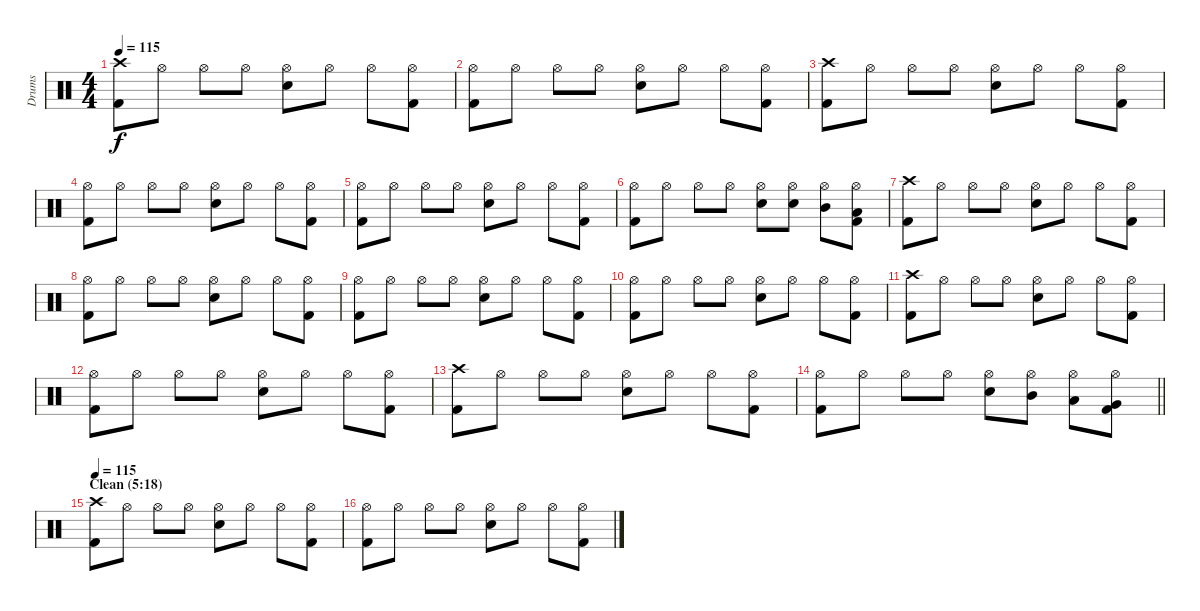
\track ("Drums" "Drums") {instrument percussion}
\staff
\articulation defaults
\ts (4 4)
\tempo 115
\clef neutral
\ks c
("Crash high (hit)" "Kick (hit) 2").8{dy f} "Hi-Hat (open)".8 "Hi-Hat (open)".8 "Hi-Hat (open)".8 ("Snare (hit) 2" "Hi-Hat (open)").8 "Hi-Hat (open)".8 "Hi-Hat (open)".8 ("Hi-Hat (open)" "Kick (hit) 2").8 |
("Hi-Hat (open)" "Kick (hit) 2").8 "Hi-Hat (open)".8 "Hi-Hat (open)".8 "Hi-Hat (open)".8 ("Snare (hit) 2" "Hi-Hat (open)").8 "Hi-Hat (open)".8 "Hi-Hat (open)".8 ("Hi-Hat (open)" "Kick (hit) 2").8 |
("Crash high (hit)" "Kick (hit) 2").8 "Hi-Hat (open)".8 "Hi-Hat (open)".8 "Hi-Hat (open)".8 ("Snare (hit) 2" "Hi-Hat (open)").8 "Hi-Hat (open)".8 "Hi-Hat (open)".8 ("Hi-Hat (open)" "Kick (hit) 2").8 |
("Hi-Hat (open)" "Kick (hit) 2").8 "Hi-Hat (open)".8 "Hi-Hat (open)".8 "Hi-Hat (open)".8 ("Snare (hit) 2" "Hi-Hat (open)").8 "Hi-Hat (open)".8 "Hi-Hat (open)".8 ("Hi-Hat (open)" "Kick (hit) 2").8 |
("Hi-Hat (open)" "Kick (hit) 2").8 "Hi-Hat (open)".8 "Hi-Hat (open)".8 "Hi-Hat (open)".8 ("Snare (hit) 2" "Hi-Hat (open)").8 "Hi-Hat (open)".8 "Hi-Hat (open)".8 ("Hi-Hat (open)" "Kick (hit) 2").8 |
("Hi-Hat (open)" "Kick (hit) 2").8 "Hi-Hat (open)".8 "Hi-Hat (open)".8 "Hi-Hat (open)".8 ("Snare (hit) 2" "Hi-Hat (open)").8 ("Snare (hit) 2" "Hi-Hat (open)").8 ("Mid Tom (hit)" "Hi-Hat (open)").8 ("Low Tom (hit)" "Hi-Hat (open)" "Kick (hit) 2").8 |
("Crash high (hit)" "Kick (hit) 2").8 "Hi-Hat (open)".8 "Hi-Hat (open)".8 "Hi-Hat (open)".8 ("Snare (hit) 2" "Hi-Hat (open)").8 "Hi-Hat (open)".8 "Hi-Hat (open)".8 ("Hi-Hat (open)" "Kick (hit) 2").8 |
("Hi-Hat (open)" "Kick (hit) 2").8 "Hi-Hat (open)".8 "Hi-Hat (open)".8 "Hi-Hat (open)".8 ("Snare (hit) 2" "Hi-Hat (open)").8 "Hi-Hat (open)".8 "Hi-Hat (open)".8 ("Hi-Hat (open)" "Kick (hit) 2").8 |
("Hi-Hat (open)" "Kick (hit) 2").8 "Hi-Hat (open)".8 "Hi-Hat (open)".8 "Hi-Hat (open)".8 ("Snare (hit) 2" "Hi-Hat (open)").8 "Hi-Hat (open)".8 "Hi-Hat (open)".8 ("Hi-Hat (open)" "Kick (hit) 2").8 |
("Hi-Hat (open)" "Kick (hit) 2").8 "Hi-Hat (open)".8 "Hi-Hat (open)".8 "Hi-Hat (open)".8 ("Snare (hit) 2" "Hi-Hat (open)").8 "Hi-Hat (open)".8 "Hi-Hat (open)".8 ("Hi-Hat (open)" "Kick (hit) 2").8 |
("Crash high (hit)" "Kick (hit) 2").8 "Hi-Hat (open)".8 "Hi-Hat (open)".8 "Hi-Hat (open)".8 ("Snare (hit) 2" "Hi-Hat (open)").8 "Hi-Hat (open)".8 "Hi-Hat (open)".8 ("Hi-Hat (open)" "Kick (hit) 2").8 |
("Hi-Hat (open)" "Kick (hit) 2").8 "Hi-Hat (open)".8 "Hi-Hat (open)".8 "Hi-Hat (open)".8 ("Snare (hit) 2" "Hi-Hat (open)").8 "Hi-Hat (open)".8 "Hi-Hat (open)".8 ("Hi-Hat (open)" "Kick (hit) 2").8 |
("Crash high (hit)" "Kick (hit) 2").8 "Hi-Hat (open)".8 "Hi-Hat (open)".8 "Hi-Hat (open)".8 ("Snare (hit) 2" "Hi-Hat (open)").8 "Hi-Hat (open)".8 "Hi-Hat (open)".8 ("Hi-Hat (open)" "Kick (hit) 2").8 |
\barLineRight lightlight
("Hi-Hat (open)" "Kick (hit) 2").8 "Hi-Hat (open)".8 "Hi-Hat (open)".8 "Hi-Hat (open)".8 ("Snare (hit) 2" "Hi-Hat (open)").8 ("Mid Tom (hit)" "Hi-Hat (open)").8 ("Low Tom (hit)" "Hi-Hat (open)").8 ("Very Low Tom (hit)" "Hi-Hat (open)" "Kick (hit) 2").8 |
\section ("" "Clean (5:18)")
\tempo 115
("Crash high (hit)" "Kick (hit) 2").8 "Hi-Hat (open)".8 "Hi-Hat (open)".8 "Hi-Hat (open)".8 ("Snare (hit) 2" "Hi-Hat (open)").8 "Hi-Hat (open)".8 "Hi-Hat (open)".8 ("Hi-Hat (open)" "Kick (hit) 2").8 |
("Hi-Hat (open)" "Kick (hit) 2").8 "Hi-Hat (open)".8 "Hi-Hat (open)".8 "Hi-Hat (open)".8 ("Snare (hit) 2" "Hi-Hat (open)").8 "Hi-Hat (open)".8 "Hi-Hat (open)".8 ("Hi-Hat (open)" "Kick (hit) 2").8
